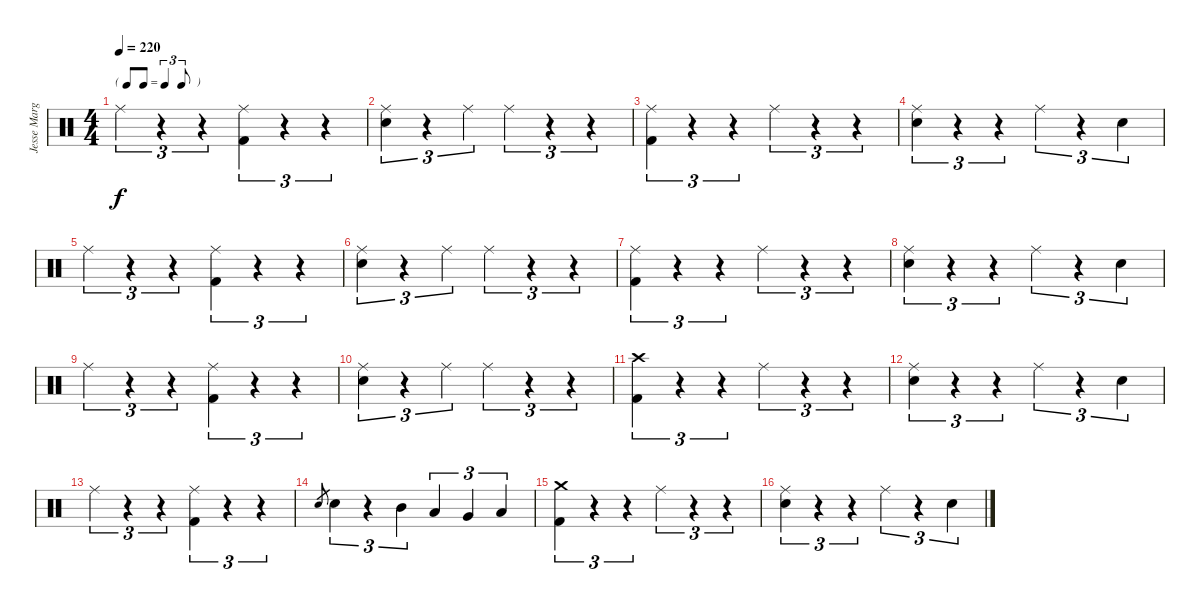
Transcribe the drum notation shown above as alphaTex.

\track ("Jesse Margera" "Jesse Marg") {instrument percussion}
\staff {score}
\articulation defaults
\ts (4 4)
\tf triplet8th
\tempo 220
\clef neutral
\ks c "Ride (middle)".4{tu (3 2) dy f}
r.4{tu (3 2)} r.4{tu (3 2)} ("Ride (middle)" "Kick (hit) 2").4{tu (3 2)} r.4{tu (3 2)} r.4{tu (3 2)} |
("Ride (middle)" "Electric Snare (hit)").4{tu (3 2)} r.4{tu (3 2)} "Ride (middle)".4{tu (3 2)} "Ride (middle)".4{tu (3 2)} r.4{tu (3 2)} r.4{tu (3 2)} |
("Ride (middle)" "Kick (hit) 2").4{tu (3 2)} r.4{tu (3 2)} r.4{tu (3 2)} "Ride (middle)".4{tu (3 2)} r.4{tu (3 2)} r.4{tu (3 2)} |
("Ride (middle)" "Electric Snare (hit)").4{tu (3 2)} r.4{tu (3 2)} r.4{tu (3 2)} "Ride (middle)".4{tu (3 2)} r.4{tu (3 2)} "Electric Snare (hit)".4{tu (3 2)} |
"Ride (middle)".4{tu (3 2)} r.4{tu (3 2)} r.4{tu (3 2)} ("Ride (middle)" "Kick (hit) 2").4{tu (3 2)} r.4{tu (3 2)} r.4{tu (3 2)} |
("Ride (middle)" "Electric Snare (hit)").4{tu (3 2)} r.4{tu (3 2)} "Ride (middle)".4{tu (3 2)} "Ride (middle)".4{tu (3 2)} r.4{tu (3 2)} r.4{tu (3 2)} |
("Ride (middle)" "Kick (hit) 2").4{tu (3 2)} r.4{tu (3 2)} r.4{tu (3 2)} "Ride (middle)".4{tu (3 2)} r.4{tu (3 2)} r.4{tu (3 2)} |
("Ride (middle)" "Electric Snare (hit)").4{tu (3 2)} r.4{tu (3 2)} r.4{tu (3 2)} "Ride (middle)".4{tu (3 2)} r.4{tu (3 2)} "Electric Snare (hit)".4{tu (3 2)} |
"Ride (middle)".4{tu (3 2)} r.4{tu (3 2)} r.4{tu (3 2)} ("Ride (middle)" "Kick (hit) 2").4{tu (3 2)} r.4{tu (3 2)} r.4{tu (3 2)} |
("Ride (middle)" "Electric Snare (hit)").4{tu (3 2)} r.4{tu (3 2)} "Ride (middle)".4{tu (3 2)} "Ride (middle)".4{tu (3 2)} r.4{tu (3 2)} r.4{tu (3 2)} |
("Crash high (hit)" "Kick (hit) 2").4{tu (3 2)} r.4{tu (3 2)} r.4{tu (3 2)} "Ride (middle)".4{tu (3 2)} r.4{tu (3 2)} r.4{tu (3 2)} |
("Ride (middle)" "Electric Snare (hit)").4{tu (3 2)} r.4{tu (3 2)} r.4{tu (3 2)} "Ride (middle)".4{tu (3 2)} r.4{tu (3 2)} "Electric Snare (hit)".4{tu (3 2)} |
"Ride (middle)".4{tu (3 2)} r.4{tu (3 2)} r.4{tu (3 2)} ("Ride (middle)" "Kick (hit) 2").4{tu (3 2)} r.4{tu (3 2)} r.4{tu (3 2)} |
"Electric Snare (hit)".8{gr} "Electric Snare (hit)".4{tu (3 2)} r.4{tu (3 2)} "Mid Tom (hit)".4{tu (3 2)} "Low Tom (hit)".4{tu (3 2)} "Very Low Tom (hit)".4{tu (3 2)} "Low Floor Tom (hit)".4{tu (3 2)} |
("Crash medium (hit)" "Kick (hit) 2").4{tu (3 2)} r.4{tu (3 2)} r.4{tu (3 2)} "Ride (middle)".4{tu (3 2)} r.4{tu (3 2)} r.4{tu (3 2)} |
("Ride (middle)" "Electric Snare (hit)").4{tu (3 2)} r.4{tu (3 2)} r.4{tu (3 2)} "Ride (middle)".4{tu (3 2)} r.4{tu (3 2)} "Electric Snare (hit)".4{tu (3 2)}
